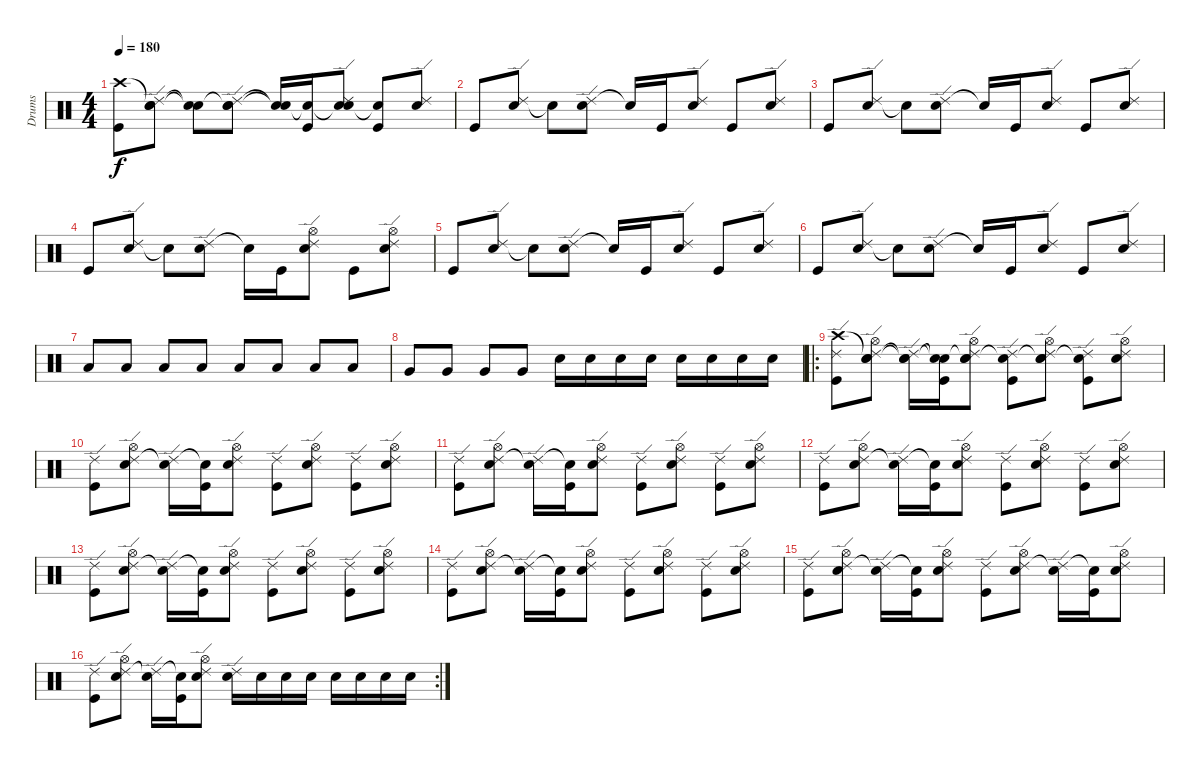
\track ("Drums" "Drums") {instrument percussion}
\staff {score}
\articulation defaults
\ts (4 4)
\tempo 180
\clef neutral
\ks c
("Crash high (hit)" "Kick (hit)").8{dy f} ("Snare (hit)"{t} "Ride (edge) 2" "Electric Snare (hit)").8 ("Snare (hit)"{t} "Snare (hit)"{t}).8 ("Snare (hit)"{t} "Ride (edge) 2" "Electric Snare (hit)").8 ("Snare (hit)"{t} "Snare (hit)"{t}).16 ("Snare (hit)"{t} "Kick (hit)").16 ("Snare (hit)"{t} "Ride (edge) 2" "Electric Snare (hit)").8 ("Snare (hit)"{t} "Kick (hit)").8 ("Ride (edge) 2" "Electric Snare (hit)").8 |
"Kick (hit)".8 ("Ride (edge) 2" "Electric Snare (hit)").8 "Snare (hit)"{t}.8 ("Ride (edge) 2" "Electric Snare (hit)").8 "Snare (hit)"{t}.16 "Kick (hit)".16 ("Ride (edge) 2" "Electric Snare (hit)").8 "Kick (hit)".8 ("Ride (edge) 2" "Electric Snare (hit)").8 |
"Kick (hit)".8 ("Ride (edge) 2" "Electric Snare (hit)").8 "Snare (hit)"{t}.8 ("Ride (edge) 2" "Electric Snare (hit)").8 "Snare (hit)"{t}.16 "Kick (hit)".16 ("Ride (edge) 2" "Electric Snare (hit)").8 "Kick (hit)".8 ("Ride (edge) 2" "Electric Snare (hit)").8 |
"Kick (hit)".8 ("Ride (edge) 2" "Electric Snare (hit)").8 "Snare (hit)"{t}.8 ("Ride (edge) 2" "Electric Snare (hit)").8 "Snare (hit)"{t}.16 "Kick (hit)".16 ("Hi-Hat (open)" "Ride (edge) 2" "Electric Snare (hit)").8 "Kick (hit)".8 ("Hi-Hat (open)" "Ride (edge) 2" "Electric Snare (hit)").8 |
"Kick (hit)".8 ("Ride (edge) 2" "Electric Snare (hit)").8 "Snare (hit)"{t}.8 ("Ride (edge) 2" "Electric Snare (hit)").8 "Snare (hit)"{t}.16 "Kick (hit)".16 ("Ride (edge) 2" "Electric Snare (hit)").8 "Kick (hit)".8 ("Ride (edge) 2" "Electric Snare (hit)").8 |
"Kick (hit)".8 ("Ride (edge) 2" "Electric Snare (hit)").8 "Snare (hit)"{t}.8 ("Ride (edge) 2" "Electric Snare (hit)").8 "Snare (hit)"{t}.16 "Kick (hit)".16 ("Ride (edge) 2" "Electric Snare (hit)").8 "Kick (hit)".8 ("Ride (edge) 2" "Electric Snare (hit)").8 |
"Low Tom (hit)".8 "Low Tom (hit)".8 "Low Tom (hit)".8 "Low Tom (hit)".8 "Low Tom (hit)".8 "Low Tom (hit)".8 "Low Tom (hit)".8 "Low Tom (hit)".8 |
"Very Low Tom (hit)".8 "Very Low Tom (hit)".8 "Very Low Tom (hit)".8 "Very Low Tom (hit)".8 "Electric Snare (hit)".16 "Electric Snare (hit)".16 "Electric Snare (hit)".16 "Electric Snare (hit)".16 "Electric Snare (hit)".16 "Electric Snare (hit)".16 "Electric Snare (hit)".16 "Electric Snare (hit)".16 |
\ro
("Crash high (hit)" "Ride (edge) 2" "Kick (hit)").8 ("Snare (hit)"{t} "Hi-Hat (open)" "Ride (edge) 2" "Electric Snare (hit)").8 ("Snare (hit)"{t} "Ride (edge) 2" "Snare (hit)"{t}).16 ("Snare (hit)"{t} "Snare (hit)"{t} "Kick (hit)").16 ("Snare (hit)"{t} "Hi-Hat (open)" "Ride (edge) 2" "Electric Snare (hit)").8 ("Snare (hit)"{t} "Ride (edge) 2" "Kick (hit)").8 ("Snare (hit)"{t} "Hi-Hat (open)" "Ride (edge) 2" "Electric Snare (hit)").8 ("Snare (hit)"{t} "Ride (edge) 2" "Kick (hit)").8 ("Hi-Hat (open)" "Ride (edge) 2" "Electric Snare (hit)").8 |
("Ride (edge) 2" "Kick (hit)").8 ("Hi-Hat (open)" "Ride (edge) 2" "Electric Snare (hit)").8 ("Ride (edge) 2" "Snare (hit)"{t}).16 ("Snare (hit)"{t} "Kick (hit)").16 ("Hi-Hat (open)" "Ride (edge) 2" "Electric Snare (hit)").8 ("Ride (edge) 2" "Kick (hit)").8 ("Hi-Hat (open)" "Ride (edge) 2" "Electric Snare (hit)").8 ("Ride (edge) 2" "Kick (hit)").8 ("Hi-Hat (open)" "Ride (edge) 2" "Electric Snare (hit)").8 |
("Ride (edge) 2" "Kick (hit)").8 ("Hi-Hat (open)" "Ride (edge) 2" "Electric Snare (hit)").8 ("Ride (edge) 2" "Snare (hit)"{t}).16 ("Snare (hit)"{t} "Kick (hit)").16 ("Hi-Hat (open)" "Ride (edge) 2" "Electric Snare (hit)").8 ("Ride (edge) 2" "Kick (hit)").8 ("Hi-Hat (open)" "Ride (edge) 2" "Electric Snare (hit)").8 ("Ride (edge) 2" "Kick (hit)").8 ("Hi-Hat (open)" "Ride (edge) 2" "Electric Snare (hit)").8 |
("Ride (edge) 2" "Kick (hit)").8 ("Hi-Hat (open)" "Ride (edge) 2" "Electric Snare (hit)").8 ("Ride (edge) 2" "Snare (hit)"{t}).16 ("Snare (hit)"{t} "Kick (hit)").16 ("Hi-Hat (open)" "Ride (edge) 2" "Electric Snare (hit)").8 ("Ride (edge) 2" "Kick (hit)").8 ("Hi-Hat (open)" "Ride (edge) 2" "Electric Snare (hit)").8 ("Ride (edge) 2" "Kick (hit)").8 ("Hi-Hat (open)" "Ride (edge) 2" "Electric Snare (hit)").8 |
("Ride (edge) 2" "Kick (hit)").8 ("Hi-Hat (open)" "Ride (edge) 2" "Electric Snare (hit)").8 ("Ride (edge) 2" "Snare (hit)"{t}).16 ("Snare (hit)"{t} "Kick (hit)").16 ("Hi-Hat (open)" "Ride (edge) 2" "Electric Snare (hit)").8 ("Ride (edge) 2" "Kick (hit)").8 ("Hi-Hat (open)" "Ride (edge) 2" "Electric Snare (hit)").8 ("Ride (edge) 2" "Kick (hit)").8 ("Hi-Hat (open)" "Ride (edge) 2" "Electric Snare (hit)").8 |
("Ride (edge) 2" "Kick (hit)").8 ("Hi-Hat (open)" "Ride (edge) 2" "Electric Snare (hit)").8 ("Ride (edge) 2" "Snare (hit)"{t}).16 ("Snare (hit)"{t} "Kick (hit)").16 ("Hi-Hat (open)" "Ride (edge) 2" "Electric Snare (hit)").8 ("Ride (edge) 2" "Kick (hit)").8 ("Hi-Hat (open)" "Ride (edge) 2" "Electric Snare (hit)").8 ("Ride (edge) 2" "Kick (hit)").8 ("Hi-Hat (open)" "Ride (edge) 2" "Electric Snare (hit)").8 |
("Ride (edge) 2" "Kick (hit)").8 ("Hi-Hat (open)" "Ride (edge) 2" "Electric Snare (hit)").8 ("Ride (edge) 2" "Snare (hit)"{t}).16 ("Snare (hit)"{t} "Kick (hit)").16 ("Hi-Hat (open)" "Ride (edge) 2" "Electric Snare (hit)").8 ("Ride (edge) 2" "Kick (hit)").8 ("Hi-Hat (open)" "Ride (edge) 2" "Electric Snare (hit)").8 ("Ride (edge) 2" "Snare (hit)"{t}).16 ("Snare (hit)"{t} "Kick (hit)").16 ("Hi-Hat (open)" "Ride (edge) 2" "Electric Snare (hit)").8 |
\rc 2
("Ride (edge) 2" "Kick (hit)").8 ("Hi-Hat (open)" "Ride (edge) 2" "Electric Snare (hit)").8 ("Ride (edge) 2" "Snare (hit)"{t}).16 ("Snare (hit)"{t} "Kick (hit)").16 ("Hi-Hat (open)" "Ride (edge) 2" "Electric Snare (hit)").8 ("Ride (edge) 2" "Electric Snare (hit)").16 "Electric Snare (hit)".16 "Electric Snare (hit)".16 "Electric Snare (hit)".16 "Electric Snare (hit)".16 "Electric Snare (hit)".16 "Electric Snare (hit)".16 "Electric Snare (hit)".16
